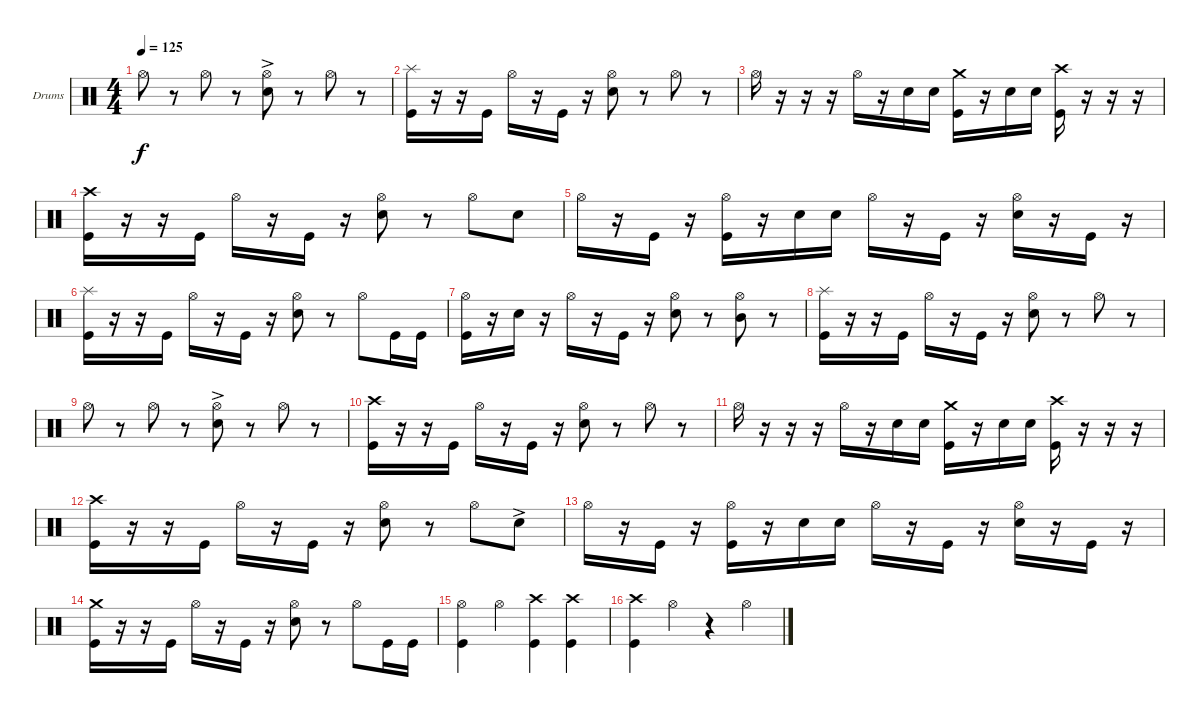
\defaultSystemsLayout 4
\bracketExtendMode groupsimilarinstruments
\firstSystemTrackNameOrientation horizontal
\otherSystemsTrackNameOrientation horizontal
\track ("Drumkit" "Drums") {instrument percussion}
\staff {score}
\articulation defaults
\ts (4 4)
\tempo 125
\clef neutral
\ks c "Hi-Hat (open)".8{dy f}
r.8 "Hi-Hat (open)".8 r.8 ("Snare (hit) 2"{ac} "Hi-Hat (open)").8 r.8 "Hi-Hat (open)".8 r.8 |
("Kick (hit)" "Splash (hit)").16 r.16 r.16 "Kick (hit)".16 "Hi-Hat (open)".16 r.16 "Kick (hit)".16 r.16 ("Snare (hit) 2" "Hi-Hat (open)").8 r.8 "Hi-Hat (open)".8 r.8 |
"Hi-Hat (open)".16 r.16 r.16 r.16 "Hi-Hat (open)".16 r.16 "Snare (hit) 2".16 "Snare (hit) 2".16 ("Kick (hit)" "Crash medium (hit)").16 r.16 "Snare (hit) 2".16 "Snare (hit) 2".16 ("Kick (hit)" "Crash high (hit)").16 r.16 r.16 r.16 |
("Kick (hit)" "Crash high (hit)").16 r.16 r.16 "Kick (hit)".16 "Hi-Hat (open)".16 r.16 "Kick (hit)".16 r.16 ("Snare (hit) 2" "Hi-Hat (open)").8 r.8 "Hi-Hat (open)".8 "Snare (hit) 2".8 |
"Hi-Hat (open)".16 r.16 "Kick (hit)".16 r.16 ("Kick (hit)" "Hi-Hat (open)").16 r.16 "Snare (hit) 2".16 "Snare (hit) 2".16 "Hi-Hat (open)".16 r.16 "Kick (hit)".16 r.16 ("Snare (hit) 2" "Hi-Hat (open)").16 r.16 "Kick (hit)".16 r.16 |
("Kick (hit)" "Splash (hit)").16 r.16 r.16 "Kick (hit)".16 "Hi-Hat (open)".16 r.16 "Kick (hit)".16 r.16 ("Snare (hit) 2" "Hi-Hat (open)").8 r.8 "Hi-Hat (open)".8 "Kick (hit)".16 "Kick (hit)".16 |
("Kick (hit)" "Hi-Hat (open)").16 r.16 "Snare (hit) 2".16 r.16 "Hi-Hat (open)".16 r.16 "Kick (hit)".16 r.16 ("Hi-Hat (open)" "Snare (hit) 2").8 r.8 ("Mid Tom (hit)" "Hi-Hat (open)").8 r.8 |
("Kick (hit)" "Splash (hit)").16 r.16 r.16 "Kick (hit)".16 "Hi-Hat (open)".16 r.16 "Kick (hit)".16 r.16 ("Snare (hit) 2" "Hi-Hat (open)").8 r.8 "Hi-Hat (open)".8 r.8 |
"Hi-Hat (open)".8 r.8 "Hi-Hat (open)".8 r.8 ("Snare (hit) 2"{ac} "Hi-Hat (open)").8 r.8 "Hi-Hat (open)".8 r.8 |
("Kick (hit)" "Crash high (hit)").16 r.16 r.16 "Kick (hit)".16 "Hi-Hat (open)".16 r.16 "Kick (hit)".16 r.16 ("Snare (hit) 2" "Hi-Hat (open)").8 r.8 "Hi-Hat (open)".8 r.8 |
"Hi-Hat (open)".16 r.16 r.16 r.16 "Hi-Hat (open)".16 r.16 "Snare (hit) 2".16 "Snare (hit) 2".16 ("Kick (hit)" "Crash medium (hit)").16 r.16 "Snare (hit) 2".16 "Snare (hit) 2".16 ("Kick (hit)" "Crash high (hit)").16 r.16 r.16 r.16 |
("Kick (hit)" "Crash high (hit)").16 r.16 r.16 "Kick (hit)".16 "Hi-Hat (open)".16 r.16 "Kick (hit)".16 r.16 ("Snare (hit) 2" "Hi-Hat (open)").8 r.8 "Hi-Hat (open)".8 "Snare (hit) 2"{ac}.8 |
"Hi-Hat (open)".16 r.16 "Kick (hit)".16 r.16 ("Kick (hit)" "Hi-Hat (open)").16 r.16 "Snare (hit) 2".16 "Snare (hit) 2".16 "Hi-Hat (open)".16 r.16 "Kick (hit)".16 r.16 ("Snare (hit) 2" "Hi-Hat (open)").16 r.16 "Kick (hit)".16 r.16 |
("Kick (hit)" "Crash medium (hit)").16 r.16 r.16 "Kick (hit)".16 "Hi-Hat (open)".16 r.16 "Kick (hit)".16 r.16 ("Snare (hit) 2" "Hi-Hat (open)").8 r.8 "Hi-Hat (open)".8 "Kick (hit)".16 "Kick (hit)".16 |
("Kick (hit)" "Hi-Hat (open)").4 "Hi-Hat (open)".4 ("Kick (hit)" "Crash high (hit)").4 ("Kick (hit)" "Crash high (hit)").4 |
("Kick (hit)" "Crash high (hit)").4 "Hi-Hat (open)".4 r.4 "Hi-Hat (open)".4
